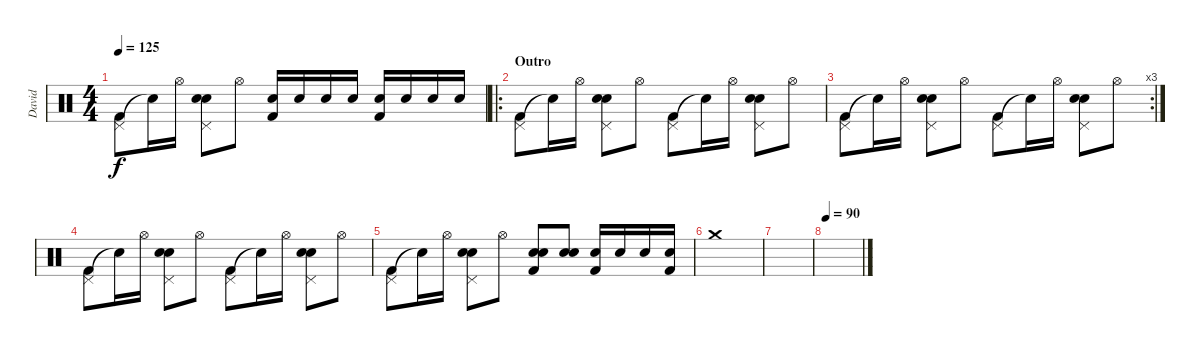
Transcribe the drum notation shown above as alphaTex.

\track ("David" "David") {instrument percussion}
\staff {score}
\articulation defaults
\ts (4 4)
\tempo 125
\clef neutral
\ks c
("Pedal Hi-Hat (hit)" "Kick (hit) 2").8{dy f} "Snare (hit)"{t}.16 "Hi-Hat (open)".16 ("Electric Snare (hit)" "Snare (hit) 2" "Pedal Hi-Hat (hit)").8 "Hi-Hat (open)".8 ("Electric Snare (hit)" "Kick (hit) 2").16 "Electric Snare (hit)".16 "Electric Snare (hit)".16 "Electric Snare (hit)".16 ("Electric Snare (hit)" "Kick (hit) 2").16 "Electric Snare (hit)".16 "Electric Snare (hit)".16 "Electric Snare (hit)".16 |
\ro
\section ("" "Outro")
("Pedal Hi-Hat (hit)" "Kick (hit) 2").8 "Snare (hit)"{t}.16 "Hi-Hat (open)".16 ("Electric Snare (hit)" "Snare (hit) 2" "Pedal Hi-Hat (hit)").8 "Hi-Hat (open)".8 ("Pedal Hi-Hat (hit)" "Kick (hit) 2").8 "Snare (hit)"{t}.16 "Hi-Hat (open)".16 ("Electric Snare (hit)" "Pedal Hi-Hat (hit)" "Snare (hit) 2").8 "Hi-Hat (open)".8 |
\rc 3
("Pedal Hi-Hat (hit)" "Kick (hit) 2").8 "Snare (hit)"{t}.16 "Hi-Hat (open)".16 ("Electric Snare (hit)" "Snare (hit) 2" "Pedal Hi-Hat (hit)").8 "Hi-Hat (open)".8 ("Pedal Hi-Hat (hit)" "Kick (hit) 2").8 "Snare (hit)"{t}.16 "Hi-Hat (open)".16 ("Electric Snare (hit)" "Pedal Hi-Hat (hit)" "Snare (hit) 2").8 "Hi-Hat (open)".8 |
("Pedal Hi-Hat (hit)" "Kick (hit) 2").8 "Snare (hit)"{t}.16 "Hi-Hat (open)".16 ("Electric Snare (hit)" "Snare (hit) 2" "Pedal Hi-Hat (hit)").8 "Hi-Hat (open)".8 ("Pedal Hi-Hat (hit)" "Kick (hit) 2").8 "Snare (hit)"{t}.16 "Hi-Hat (open)".16 ("Electric Snare (hit)" "Pedal Hi-Hat (hit)" "Snare (hit) 2").8 "Hi-Hat (open)".8 |
("Pedal Hi-Hat (hit)" "Kick (hit) 2").8 "Snare (hit)"{t}.16 "Hi-Hat (open)".16 ("Electric Snare (hit)" "Snare (hit) 2" "Pedal Hi-Hat (hit)").8 "Hi-Hat (open)".8 ("Electric Snare (hit)" "Snare (hit) 2" "Kick (hit) 2").8 ("Electric Snare (hit)" "Snare (hit) 2").8 ("Electric Snare (hit)" "Kick (hit) 2").16 "Electric Snare (hit)".16 "Electric Snare (hit)".16 ("Electric Snare (hit)" "Kick (hit) 2").16 |
"Crash medium (hit)".1 |
|
\tempo 90
